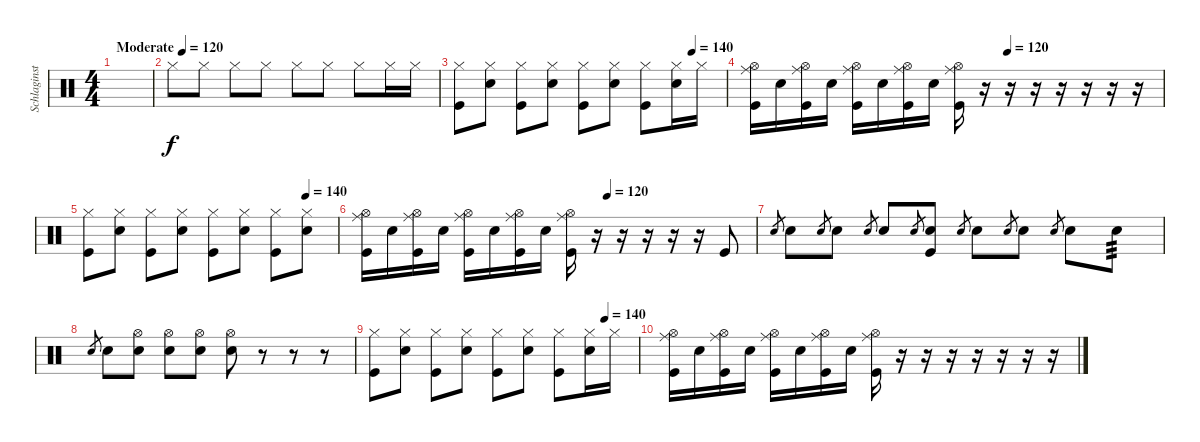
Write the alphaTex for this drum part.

\track ("Schlaginstrumente - Auswahl" "Schlaginst") {instrument percussion}
\staff {score}
\articulation defaults
\ts (4 4)
\tempo (120 "Moderate")
\clef neutral
\ks c
|
"Hi-Hat (closed)".8 "Hi-Hat (closed)".8 "Hi-Hat (closed)".8 "Hi-Hat (closed)".8 "Hi-Hat (closed)".8 "Hi-Hat (closed)".8 "Hi-Hat (closed)".8 "Hi-Hat (closed)".16 "Hi-Hat (closed)".16 |
\tempo (140 0.875)
("Kick (hit)" "Hi-Hat (closed)").8 ("Electric Snare (hit)" "Hi-Hat (closed)").8 ("Kick (hit)" "Hi-Hat (closed)").8 ("Electric Snare (hit)" "Hi-Hat (closed)").8 ("Kick (hit)" "Hi-Hat (closed)").8 ("Electric Snare (hit)" "Hi-Hat (closed)").8 ("Kick (hit)" "Hi-Hat (closed)").8 ("Electric Snare (hit)" "Hi-Hat (closed)").16 "Hi-Hat (closed)".16 |
\tempo (120 0.625)
("Hi-Hat (open)" "Kick (hit)" "Ride (middle)").16 "Electric Snare (hit)".16 ("Hi-Hat (open)" "Kick (hit)" "Ride (middle)").16 "Electric Snare (hit)".16 ("Hi-Hat (open)" "Kick (hit)" "Ride (middle)").16 "Electric Snare (hit)".16 ("Hi-Hat (open)" "Kick (hit)" "Ride (middle)").16 "Electric Snare (hit)".16 ("Hi-Hat (open)" "Kick (hit)" "Ride (middle)").16 r.16 r.16 r.16 r.16 r.16 r.16 r.16 |
\tempo (140 0.875)
("Kick (hit)" "Hi-Hat (closed)").8 ("Electric Snare (hit)" "Hi-Hat (closed)").8 ("Kick (hit)" "Hi-Hat (closed)").8 ("Electric Snare (hit)" "Hi-Hat (closed)").8 ("Kick (hit)" "Hi-Hat (closed)").8 ("Electric Snare (hit)" "Hi-Hat (closed)").8 ("Kick (hit)" "Hi-Hat (closed)").8 ("Electric Snare (hit)" "Hi-Hat (closed)").8 |
\tempo (120 0.625)
("Hi-Hat (open)" "Kick (hit)" "Ride (middle)").16 "Electric Snare (hit)".16 ("Hi-Hat (open)" "Kick (hit)" "Ride (middle)").16 "Electric Snare (hit)".16 ("Hi-Hat (open)" "Kick (hit)" "Ride (middle)").16 "Electric Snare (hit)".16 ("Hi-Hat (open)" "Kick (hit)" "Ride (middle)").16 "Electric Snare (hit)".16 ("Hi-Hat (open)" "Kick (hit)" "Ride (middle)").16 r.16 r.16 r.16 r.16 r.16 "Kick (hit)".8 |
"Electric Snare (hit)".8{gr} "Electric Snare (hit)".8 "Electric Snare (hit)".8{gr} "Electric Snare (hit)".8 "Electric Snare (hit)".8{gr} "Electric Snare (hit)".8 "Electric Snare (hit)".8{gr} ("Kick (hit)" "Electric Snare (hit)").8 "Electric Snare (hit)".8{gr} "Electric Snare (hit)".8 "Electric Snare (hit)".8{gr} "Electric Snare (hit)".8 "Electric Snare (hit)".8{gr} "Electric Snare (hit)".8 "Electric Snare (hit)".8{tp 3} |
"Electric Snare (hit)".8{gr} "Electric Snare (hit)".8 ("Electric Snare (hit)" "Hi-Hat (open)").8 ("Electric Snare (hit)" "Hi-Hat (open)").8 ("Electric Snare (hit)" "Hi-Hat (open)").8 ("Electric Snare (hit)" "Hi-Hat (open)").8 r.8 r.8 r.8 |
\tempo (140 0.875)
("Kick (hit)" "Hi-Hat (closed)").8 ("Electric Snare (hit)" "Hi-Hat (closed)").8 ("Kick (hit)" "Hi-Hat (closed)").8 ("Electric Snare (hit)" "Hi-Hat (closed)").8 ("Kick (hit)" "Hi-Hat (closed)").8 ("Electric Snare (hit)" "Hi-Hat (closed)").8 ("Kick (hit)" "Hi-Hat (closed)").8 ("Electric Snare (hit)" "Hi-Hat (closed)").16 "Hi-Hat (closed)".16 |
("Hi-Hat (open)" "Kick (hit)" "Ride (middle)").16 "Electric Snare (hit)".16 ("Hi-Hat (open)" "Kick (hit)" "Ride (middle)").16 "Electric Snare (hit)".16 ("Hi-Hat (open)" "Kick (hit)" "Ride (middle)").16 "Electric Snare (hit)".16 ("Hi-Hat (open)" "Kick (hit)" "Ride (middle)").16 "Electric Snare (hit)".16 ("Hi-Hat (open)" "Kick (hit)" "Ride (middle)").16 r.16 r.16 r.16 r.16 r.16 r.16 r.16
